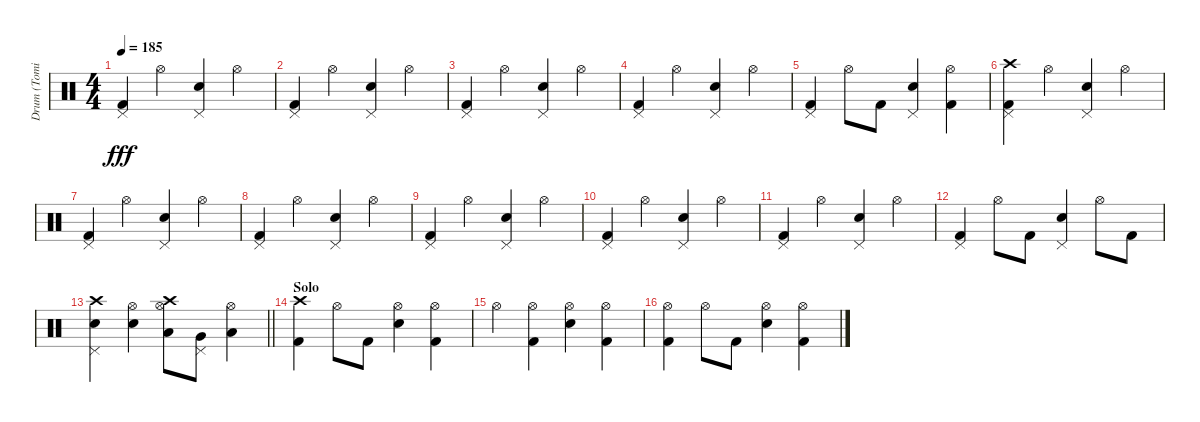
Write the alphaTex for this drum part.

\track ("Drum (Tomi)" "Drum (Tomi") {instrument percussion}
\staff {score}
\articulation defaults
\ts (4 4)
\tempo 185
\clef neutral
\ks c
("Pedal Hi-Hat (hit)" "Kick (hit) 2").4{dy fff} "Hi-Hat (open)".4 ("Pedal Hi-Hat (hit)" "Electric Snare (hit)").4 "Hi-Hat (open)".4 |
("Kick (hit) 2" "Pedal Hi-Hat (hit)").4 "Hi-Hat (open)".4 ("Pedal Hi-Hat (hit)" "Electric Snare (hit)").4 "Hi-Hat (open)".4 |
("Pedal Hi-Hat (hit)" "Kick (hit) 2").4 "Hi-Hat (open)".4 ("Pedal Hi-Hat (hit)" "Electric Snare (hit)").4 "Hi-Hat (open)".4 |
("Kick (hit) 2" "Pedal Hi-Hat (hit)").4 "Hi-Hat (open)".4 ("Pedal Hi-Hat (hit)" "Electric Snare (hit)").4 "Hi-Hat (open)".4 |
("Kick (hit) 2" "Pedal Hi-Hat (hit)").4 "Hi-Hat (open)".8 "Kick (hit) 2".8 ("Pedal Hi-Hat (hit)" "Electric Snare (hit)").4 ("Kick (hit) 2" "Hi-Hat (open)").4 |
("Pedal Hi-Hat (hit)" "Kick (hit) 2" "Crash high (hit)").4 "Hi-Hat (open)".4 ("Pedal Hi-Hat (hit)" "Electric Snare (hit)").4 "Hi-Hat (open)".4 |
("Pedal Hi-Hat (hit)" "Kick (hit) 2").4 "Hi-Hat (open)".4 ("Pedal Hi-Hat (hit)" "Electric Snare (hit)").4 "Hi-Hat (open)".4 |
("Kick (hit) 2" "Pedal Hi-Hat (hit)").4 "Hi-Hat (open)".4 ("Pedal Hi-Hat (hit)" "Electric Snare (hit)").4 "Hi-Hat (open)".4 |
("Pedal Hi-Hat (hit)" "Kick (hit) 2").4 "Hi-Hat (open)".4 ("Pedal Hi-Hat (hit)" "Electric Snare (hit)").4 "Hi-Hat (open)".4 |
("Pedal Hi-Hat (hit)" "Kick (hit) 2").4 "Hi-Hat (open)".4 ("Pedal Hi-Hat (hit)" "Electric Snare (hit)").4 "Hi-Hat (open)".4 |
("Kick (hit) 2" "Pedal Hi-Hat (hit)").4 "Hi-Hat (open)".4 ("Pedal Hi-Hat (hit)" "Electric Snare (hit)").4 "Hi-Hat (open)".4 |
("Kick (hit) 2" "Pedal Hi-Hat (hit)").4 "Hi-Hat (open)".8 "Kick (hit) 2".8 ("Pedal Hi-Hat (hit)" "Electric Snare (hit)").4 "Hi-Hat (open)".8 "Kick (hit) 2".8 |
\barLineRight lightlight
("Pedal Hi-Hat (hit)" "Crash high (hit)" "Electric Snare (hit)").4 ("Hi-Hat (open)" "Electric Snare (hit)").4 ("Hi-Hat (open)" "Low Tom (hit)" "Crash high (hit)").8 ("Very Low Tom (hit)" "Pedal Hi-Hat (hit)").8 ("Low Floor Tom (hit)" "Hi-Hat (open)").4 |
\section ("" "Solo")
("Kick (hit) 2" "Crash high (hit)").4 "Hi-Hat (open)".8 "Kick (hit) 2".8 ("Hi-Hat (open)" "Electric Snare (hit)").4 ("Hi-Hat (open)" "Kick (hit) 2").4 |
"Hi-Hat (open)".4 ("Kick (hit) 2" "Hi-Hat (open)").4 ("Hi-Hat (open)" "Electric Snare (hit)").4 ("Hi-Hat (open)" "Kick (hit) 2").4 |
("Hi-Hat (open)" "Kick (hit) 2").4 "Hi-Hat (open)".8 "Kick (hit) 2".8 ("Hi-Hat (open)" "Electric Snare (hit)").4 ("Kick (hit) 2" "Hi-Hat (open)").4
